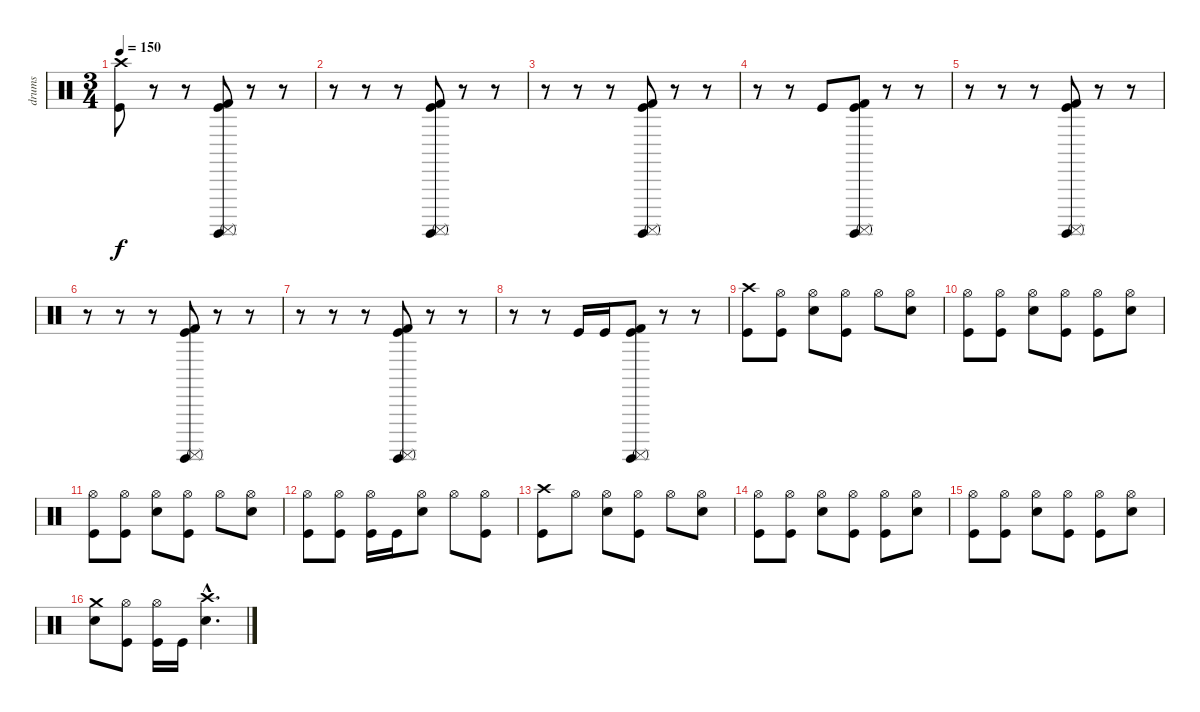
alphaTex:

\track ("drums" "drums") {instrument percussion}
\staff {score}
\articulation defaults
\ts (3 4)
\tempo 150
\clef neutral
\ks c
("Crash high (hit)" "Kick (hit)").8{dy f} r.8 r.8 ("Surdo (hit)" "Kick (hit) 2" "Surdo (mute)" "Kick (hit)").8 r.8 r.8 |
r.8 r.8 r.8 ("Surdo (hit)" "Kick (hit) 2" "Surdo (mute)" "Kick (hit)").8 r.8 r.8 |
r.8 r.8 r.8 ("Surdo (hit)" "Kick (hit) 2" "Surdo (mute)" "Kick (hit)").8 r.8 r.8 |
r.8 r.8 "Kick (hit)".8 ("Surdo (hit)" "Kick (hit) 2" "Surdo (mute)" "Kick (hit)").8 r.8 r.8 |
r.8 r.8 r.8 ("Surdo (hit)" "Kick (hit) 2" "Surdo (mute)" "Kick (hit)").8 r.8 r.8 |
r.8 r.8 r.8 ("Surdo (hit)" "Kick (hit) 2" "Surdo (mute)" "Kick (hit)").8 r.8 r.8 |
r.8 r.8 r.8 ("Surdo (hit)" "Kick (hit) 2" "Surdo (mute)" "Kick (hit)").8 r.8 r.8 |
r.8 r.8 "Kick (hit)".16 "Kick (hit)".16 ("Surdo (hit)" "Kick (hit) 2" "Surdo (mute)" "Kick (hit)").8 r.8 r.8 |
("Crash high (hit)" "Kick (hit)").8 ("Hi-Hat (open)" "Kick (hit)").8 ("Hi-Hat (open)" "Snare (hit) 2").8 ("Hi-Hat (open)" "Kick (hit)").8 "Hi-Hat (open)".8 ("Hi-Hat (open)" "Snare (hit) 2").8 |
("Hi-Hat (open)" "Kick (hit)").8 ("Hi-Hat (open)" "Kick (hit)").8 ("Hi-Hat (open)" "Snare (hit) 2").8 ("Hi-Hat (open)" "Kick (hit)").8 ("Hi-Hat (open)" "Kick (hit)").8 ("Hi-Hat (open)" "Snare (hit) 2").8 |
("Hi-Hat (open)" "Kick (hit)").8 ("Hi-Hat (open)" "Kick (hit)").8 ("Hi-Hat (open)" "Snare (hit) 2").8 ("Hi-Hat (open)" "Kick (hit)").8 "Hi-Hat (open)".8 ("Hi-Hat (open)" "Snare (hit) 2").8 |
("Hi-Hat (open)" "Kick (hit)").8 ("Hi-Hat (open)" "Kick (hit)").8 ("Hi-Hat (open)" "Kick (hit)").16 "Kick (hit)".16 ("Hi-Hat (open)" "Snare (hit) 2").8 "Hi-Hat (open)".8 ("Hi-Hat (open)" "Kick (hit)").8 |
("Crash high (hit)" "Kick (hit)").8 "Hi-Hat (open)".8 ("Hi-Hat (open)" "Snare (hit) 2").8 ("Hi-Hat (open)" "Kick (hit)").8 "Hi-Hat (open)".8 ("Hi-Hat (open)" "Snare (hit) 2").8 |
("Hi-Hat (open)" "Kick (hit)").8 ("Hi-Hat (open)" "Kick (hit)").8 ("Hi-Hat (open)" "Snare (hit) 2").8 ("Hi-Hat (open)" "Kick (hit)").8 ("Hi-Hat (open)" "Kick (hit)").8 ("Hi-Hat (open)" "Snare (hit) 2").8 |
("Hi-Hat (open)" "Kick (hit)").8 ("Hi-Hat (open)" "Kick (hit)").8 ("Hi-Hat (open)" "Snare (hit) 2").8 ("Hi-Hat (open)" "Kick (hit)").8 ("Hi-Hat (open)" "Kick (hit)").8 ("Hi-Hat (open)" "Snare (hit) 2").8 |
("Crash medium (hit)" "Snare (hit) 2").8 ("Hi-Hat (open)" "Kick (hit)").8 ("Hi-Hat (open)" "Kick (hit)").16 "Kick (hit)".16 ("Crash high (hit)"{hac} "Snare (hit) 2"{hac}).4{d}
